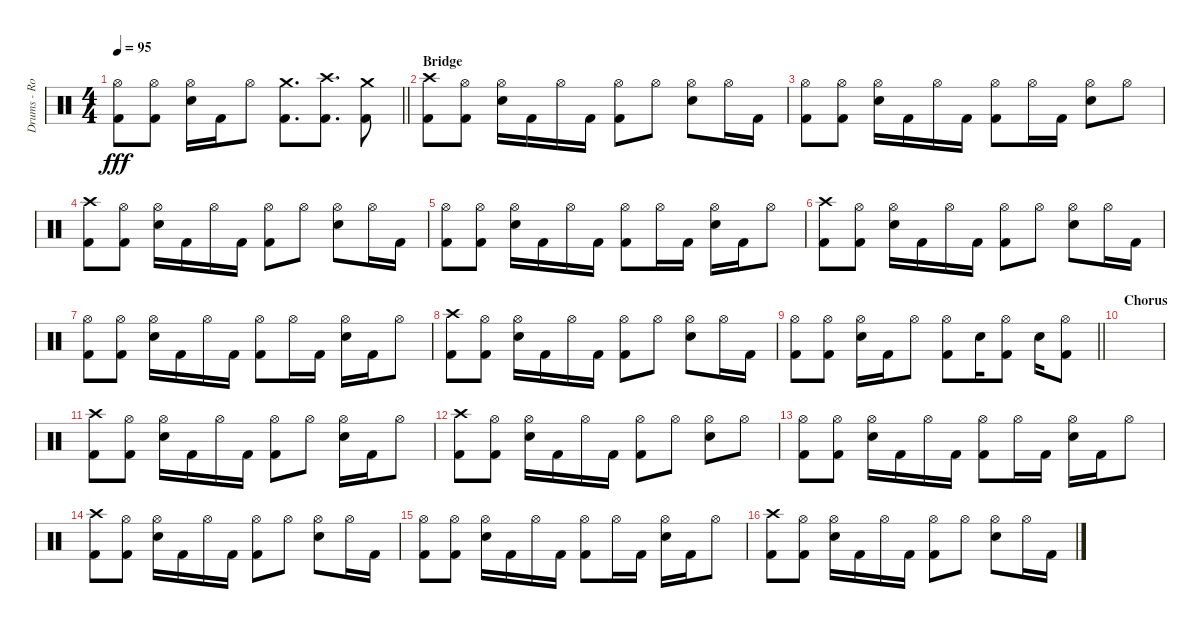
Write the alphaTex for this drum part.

\track ("Drums - Rob Bourdon" "Drums - Ro") {instrument percussion}
\staff {score}
\articulation defaults
\ts (4 4)
\tempo 95
\clef neutral
\barLineRight lightlight
\ks c
("Hi-Hat (open)" "Kick (hit) 2").8{dy fff} ("Hi-Hat (open)" "Kick (hit) 2").8 ("Hi-Hat (open)" "Snare (hit) 2").16 "Kick (hit) 2".16 "Hi-Hat (open)".8 ("Crash medium (hit)" "Kick (hit) 2").8{d} ("Crash high (hit)" "Kick (hit) 2").8{d} ("Crash medium (hit)" "Kick (hit) 2").8 |
\section ("" "Bridge")
("Crash high (hit)" "Kick (hit) 2").8 ("Hi-Hat (open)" "Kick (hit) 2").8 ("Hi-Hat (open)" "Snare (hit) 2").16 "Kick (hit) 2".16 "Hi-Hat (open)".16 "Kick (hit) 2".16 ("Hi-Hat (open)" "Kick (hit) 2").8 "Hi-Hat (open)".8 ("Hi-Hat (open)" "Snare (hit) 2").8 "Hi-Hat (open)".16 "Kick (hit) 2".16 |
("Hi-Hat (open)" "Kick (hit) 2").8 ("Hi-Hat (open)" "Kick (hit) 2").8 ("Hi-Hat (open)" "Snare (hit) 2").16 "Kick (hit) 2".16 "Hi-Hat (open)".16 "Kick (hit) 2".16 ("Hi-Hat (open)" "Kick (hit) 2").8 "Hi-Hat (open)".16 "Kick (hit) 2".16 ("Hi-Hat (open)" "Snare (hit) 2").8 "Hi-Hat (open)".8 |
("Crash high (hit)" "Kick (hit) 2").8 ("Hi-Hat (open)" "Kick (hit) 2").8 ("Hi-Hat (open)" "Snare (hit) 2").16 "Kick (hit) 2".16 "Hi-Hat (open)".16 "Kick (hit) 2".16 ("Hi-Hat (open)" "Kick (hit) 2").8 "Hi-Hat (open)".8 ("Hi-Hat (open)" "Snare (hit) 2").8 "Hi-Hat (open)".16 "Kick (hit) 2".16 |
("Hi-Hat (open)" "Kick (hit) 2").8 ("Hi-Hat (open)" "Kick (hit) 2").8 ("Hi-Hat (open)" "Snare (hit) 2").16 "Kick (hit) 2".16 "Hi-Hat (open)".16 "Kick (hit) 2".16 ("Hi-Hat (open)" "Kick (hit) 2").8 "Hi-Hat (open)".16 "Kick (hit) 2".16 ("Hi-Hat (open)" "Snare (hit) 2").16 "Kick (hit) 2".16 "Hi-Hat (open)".8 |
("Crash high (hit)" "Kick (hit) 2").8 ("Hi-Hat (open)" "Kick (hit) 2").8 ("Hi-Hat (open)" "Snare (hit) 2").16 "Kick (hit) 2".16 "Hi-Hat (open)".16 "Kick (hit) 2".16 ("Hi-Hat (open)" "Kick (hit) 2").8 "Hi-Hat (open)".8 ("Hi-Hat (open)" "Snare (hit) 2").8 "Hi-Hat (open)".16 "Kick (hit) 2".16 |
("Hi-Hat (open)" "Kick (hit) 2").8 ("Hi-Hat (open)" "Kick (hit) 2").8 ("Hi-Hat (open)" "Snare (hit) 2").16 "Kick (hit) 2".16 "Hi-Hat (open)".16 "Kick (hit) 2".16 ("Hi-Hat (open)" "Kick (hit) 2").8 "Hi-Hat (open)".16 "Kick (hit) 2".16 ("Hi-Hat (open)" "Snare (hit) 2").16 "Kick (hit) 2".16 "Hi-Hat (open)".8 |
("Crash high (hit)" "Kick (hit) 2").8 ("Hi-Hat (open)" "Kick (hit) 2").8 ("Hi-Hat (open)" "Snare (hit) 2").16 "Kick (hit) 2".16 "Hi-Hat (open)".16 "Kick (hit) 2".16 ("Hi-Hat (open)" "Kick (hit) 2").8 "Hi-Hat (open)".8 ("Hi-Hat (open)" "Snare (hit) 2").8 "Hi-Hat (open)".16 "Kick (hit) 2".16 |
\barLineRight lightlight
("Hi-Hat (open)" "Kick (hit) 2").8 ("Hi-Hat (open)" "Kick (hit) 2").8 ("Hi-Hat (open)" "Snare (hit) 2").16 "Kick (hit) 2".16 "Hi-Hat (open)".8 ("Hi-Hat (open)" "Kick (hit) 2").8 "Snare (hit) 2".16 ("Hi-Hat (open)" "Kick (hit) 2").8 "Snare (hit) 2".16 ("Hi-Hat (open)" "Kick (hit) 2").8 |
\section ("" "Chorus")
|
("Crash high (hit)" "Kick (hit) 2").8 ("Hi-Hat (open)" "Kick (hit) 2").8 ("Hi-Hat (open)" "Snare (hit) 2").16 "Kick (hit) 2".16 "Hi-Hat (open)".16 "Kick (hit) 2".16 ("Hi-Hat (open)" "Kick (hit) 2").8 "Hi-Hat (open)".8 ("Hi-Hat (open)" "Snare (hit) 2").16 "Kick (hit) 2".16 "Hi-Hat (open)".8 |
("Crash high (hit)" "Kick (hit) 2").8 ("Hi-Hat (open)" "Kick (hit) 2").8 ("Hi-Hat (open)" "Snare (hit) 2").16 "Kick (hit) 2".16 "Hi-Hat (open)".16 "Kick (hit) 2".16 ("Hi-Hat (open)" "Kick (hit) 2").8 "Hi-Hat (open)".8 ("Hi-Hat (open)" "Snare (hit) 2").8 "Hi-Hat (open)".8 |
("Hi-Hat (open)" "Kick (hit) 2").8 ("Hi-Hat (open)" "Kick (hit) 2").8 ("Hi-Hat (open)" "Snare (hit) 2").16 "Kick (hit) 2".16 "Hi-Hat (open)".16 "Kick (hit) 2".16 ("Hi-Hat (open)" "Kick (hit) 2").8 "Hi-Hat (open)".16 "Kick (hit) 2".16 ("Hi-Hat (open)" "Snare (hit) 2").16 "Kick (hit) 2".16 "Hi-Hat (open)".8 |
("Crash high (hit)" "Kick (hit) 2").8 ("Hi-Hat (open)" "Kick (hit) 2").8 ("Hi-Hat (open)" "Snare (hit) 2").16 "Kick (hit) 2".16 "Hi-Hat (open)".16 "Kick (hit) 2".16 ("Hi-Hat (open)" "Kick (hit) 2").8 "Hi-Hat (open)".8 ("Hi-Hat (open)" "Snare (hit) 2").8 "Hi-Hat (open)".16 "Kick (hit) 2".16 |
("Hi-Hat (open)" "Kick (hit) 2").8 ("Hi-Hat (open)" "Kick (hit) 2").8 ("Hi-Hat (open)" "Snare (hit) 2").16 "Kick (hit) 2".16 "Hi-Hat (open)".16 "Kick (hit) 2".16 ("Hi-Hat (open)" "Kick (hit) 2").8 "Hi-Hat (open)".16 "Kick (hit) 2".16 ("Hi-Hat (open)" "Snare (hit) 2").16 "Kick (hit) 2".16 "Hi-Hat (open)".8 |
("Crash high (hit)" "Kick (hit) 2").8 ("Hi-Hat (open)" "Kick (hit) 2").8 ("Hi-Hat (open)" "Snare (hit) 2").16 "Kick (hit) 2".16 "Hi-Hat (open)".16 "Kick (hit) 2".16 ("Hi-Hat (open)" "Kick (hit) 2").8 "Hi-Hat (open)".8 ("Hi-Hat (open)" "Snare (hit) 2").8 "Hi-Hat (open)".16 "Kick (hit) 2".16
